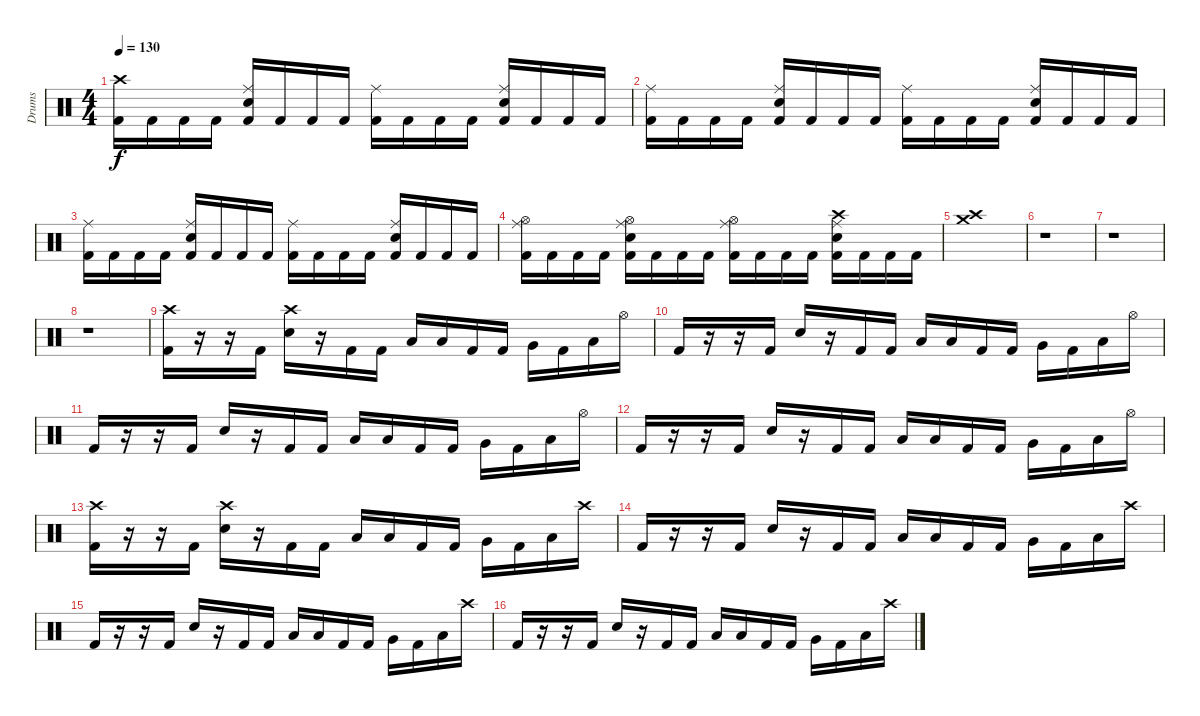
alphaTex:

\track ("Drums" "Drums") {instrument percussion}
\staff {score}
\articulation defaults
\ts (4 4)
\tempo 130
\clef neutral
\ks c
("Crash high (hit)" "Kick (hit) 2").16{dy f} "Kick (hit) 2".16 "Kick (hit) 2".16 "Kick (hit) 2".16 ("Ride (middle)" "Electric Snare (hit)" "Kick (hit) 2").16 "Kick (hit) 2".16 "Kick (hit) 2".16 "Kick (hit) 2".16 ("Ride (middle)" "Kick (hit) 2").16 "Kick (hit) 2".16 "Kick (hit) 2".16 "Kick (hit) 2".16 ("Ride (middle)" "Electric Snare (hit)" "Kick (hit) 2").16 "Kick (hit) 2".16 "Kick (hit) 2".16 "Kick (hit) 2".16 |
("Ride (middle)" "Kick (hit) 2").16 "Kick (hit) 2".16 "Kick (hit) 2".16 "Kick (hit) 2".16 ("Ride (middle)" "Electric Snare (hit)" "Kick (hit) 2").16 "Kick (hit) 2".16 "Kick (hit) 2".16 "Kick (hit) 2".16 ("Ride (middle)" "Kick (hit) 2").16 "Kick (hit) 2".16 "Kick (hit) 2".16 "Kick (hit) 2".16 ("Ride (middle)" "Electric Snare (hit)" "Kick (hit) 2").16 "Kick (hit) 2".16 "Kick (hit) 2".16 "Kick (hit) 2".16 |
("Ride (middle)" "Kick (hit) 2").16 "Kick (hit) 2".16 "Kick (hit) 2".16 "Kick (hit) 2".16 ("Ride (middle)" "Electric Snare (hit)" "Kick (hit) 2").16 "Kick (hit) 2".16 "Kick (hit) 2".16 "Kick (hit) 2".16 ("Ride (middle)" "Kick (hit) 2").16 "Kick (hit) 2".16 "Kick (hit) 2".16 "Kick (hit) 2".16 ("Ride (middle)" "Electric Snare (hit)" "Kick (hit) 2").16 "Kick (hit) 2".16 "Kick (hit) 2".16 "Kick (hit) 2".16 |
("Hi-Hat (open)" "Ride (middle)" "Kick (hit) 2").16 "Kick (hit) 2".16 "Kick (hit) 2".16 "Kick (hit) 2".16 ("Hi-Hat (open)" "Ride (middle)" "Electric Snare (hit)" "Kick (hit) 2").16 "Kick (hit) 2".16 "Kick (hit) 2".16 "Kick (hit) 2".16 ("Hi-Hat (open)" "Ride (middle)" "Kick (hit) 2").16 "Kick (hit) 2".16 "Kick (hit) 2".16 "Kick (hit) 2".16 ("Crash high (hit)" "Ride (middle)" "Electric Snare (hit)" "Kick (hit) 2").16 "Kick (hit) 2".16 "Kick (hit) 2".16 "Kick (hit) 2".16 |
("Crash medium (hit)" "Crash high (hit)").1 |
r.1 |
r.1 |
r.1 |
("Crash high (hit)" "Kick (hit) 2").16 r.16 r.16 "Kick (hit) 2".16 ("Crash high (hit)" "Electric Snare (hit)").16 r.16 "Kick (hit) 2".16 "Kick (hit) 2".16 "Low Tom (hit)".16 "Low Tom (hit)".16 "Kick (hit) 2".16 "Kick (hit) 2".16 "Very Low Tom (hit)".16 "Kick (hit) 2".16 "Low Tom (hit)".16 "Hi-Hat (open)".16 |
"Kick (hit) 2".16 r.16 r.16 "Kick (hit) 2".16 "Electric Snare (hit)".16 r.16 "Kick (hit) 2".16 "Kick (hit) 2".16 "Low Tom (hit)".16 "Low Tom (hit)".16 "Kick (hit) 2".16 "Kick (hit) 2".16 "Very Low Tom (hit)".16 "Kick (hit) 2".16 "Low Tom (hit)".16 "Hi-Hat (open)".16 |
"Kick (hit) 2".16 r.16 r.16 "Kick (hit) 2".16 "Electric Snare (hit)".16 r.16 "Kick (hit) 2".16 "Kick (hit) 2".16 "Low Tom (hit)".16 "Low Tom (hit)".16 "Kick (hit) 2".16 "Kick (hit) 2".16 "Very Low Tom (hit)".16 "Kick (hit) 2".16 "Low Tom (hit)".16 "Hi-Hat (open)".16 |
"Kick (hit) 2".16 r.16 r.16 "Kick (hit) 2".16 "Electric Snare (hit)".16 r.16 "Kick (hit) 2".16 "Kick (hit) 2".16 "Low Tom (hit)".16 "Low Tom (hit)".16 "Kick (hit) 2".16 "Kick (hit) 2".16 "Very Low Tom (hit)".16 "Kick (hit) 2".16 "Low Tom (hit)".16 "Hi-Hat (open)".16 |
("Crash high (hit)" "Kick (hit) 2").16 r.16 r.16 "Kick (hit) 2".16 ("Crash high (hit)" "Electric Snare (hit)").16 r.16 "Kick (hit) 2".16 "Kick (hit) 2".16 "Low Tom (hit)".16 "Low Tom (hit)".16 "Kick (hit) 2".16 "Kick (hit) 2".16 "Very Low Tom (hit)".16 "Kick (hit) 2".16 "Low Tom (hit)".16 "Crash high (hit)".16 |
"Kick (hit) 2".16 r.16 r.16 "Kick (hit) 2".16 "Electric Snare (hit)".16 r.16 "Kick (hit) 2".16 "Kick (hit) 2".16 "Low Tom (hit)".16 "Low Tom (hit)".16 "Kick (hit) 2".16 "Kick (hit) 2".16 "Very Low Tom (hit)".16 "Kick (hit) 2".16 "Low Tom (hit)".16 "Crash high (hit)".16 |
"Kick (hit) 2".16 r.16 r.16 "Kick (hit) 2".16 "Electric Snare (hit)".16 r.16 "Kick (hit) 2".16 "Kick (hit) 2".16 "Low Tom (hit)".16 "Low Tom (hit)".16 "Kick (hit) 2".16 "Kick (hit) 2".16 "Very Low Tom (hit)".16 "Kick (hit) 2".16 "Low Tom (hit)".16 "Crash high (hit)".16 |
"Kick (hit) 2".16 r.16 r.16 "Kick (hit) 2".16 "Electric Snare (hit)".16 r.16 "Kick (hit) 2".16 "Kick (hit) 2".16 "Low Tom (hit)".16 "Low Tom (hit)".16 "Kick (hit) 2".16 "Kick (hit) 2".16 "Very Low Tom (hit)".16 "Kick (hit) 2".16 "Low Tom (hit)".16 "Crash high (hit)".16
